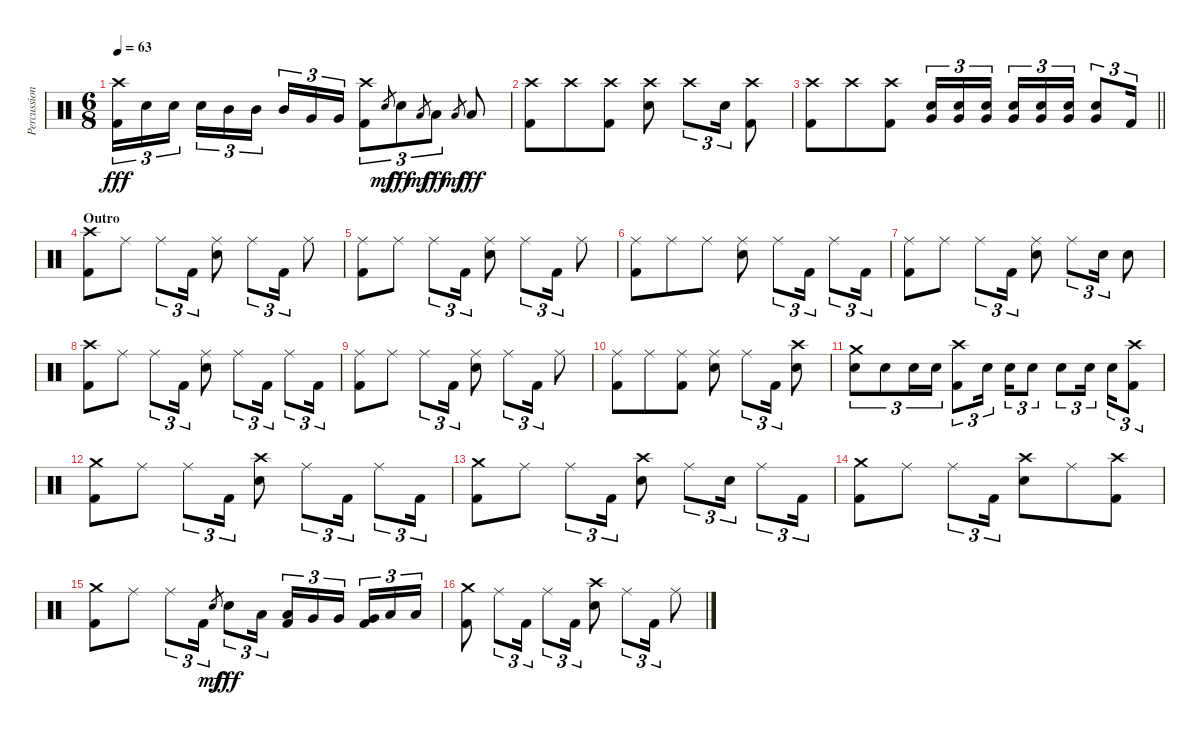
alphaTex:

\track ("Percussion" "Percussion") {instrument percussion}
\staff {score}
\articulation defaults
\ts (6 8)
\tempo 63
\clef neutral
\ks c
("Crash high (hit)" "Kick (hit) 2").16{tu (3 2) dy fff} "Electric Snare (hit)".16{tu (3 2)} "Electric Snare (hit)".16{tu (3 2) beam splitsecondary} "Electric Snare (hit)".16{tu (3 2)} "Mid Tom (hit)".16{tu (3 2)} "Mid Tom (hit)".16{tu (3 2) beam splitsecondary} "Mid Tom (hit)".16{tu (3 2)} "Very Low Tom (hit)".16{tu (3 2)} "Very Low Tom (hit)".16{tu (3 2)} ("Crash high (hit)" "Kick (hit) 2").8{tu (3 2)} "Electric Snare (hit)".8{gr dy mf} "Electric Snare (hit)".8{tu (3 2) dy fff} "Low Tom (hit)".8{gr dy mf} "Low Tom (hit)".8{tu (3 2) dy fff} "Low Floor Tom (hit)".8{gr dy mf} "Low Floor Tom (hit)".8{dy fff} |
("Crash high (hit)" "Kick (hit) 2").8 "Crash high (hit)".8 ("Crash high (hit)" "Kick (hit) 2").8 ("Crash high (hit)" "Electric Snare (hit)").8 "Crash high (hit)".8{tu (3 2)} "Electric Snare (hit)".16{tu (3 2)} ("Crash high (hit)" "Kick (hit) 2").8 |
\barLineRight lightlight
("Crash high (hit)" "Kick (hit) 2").8 "Crash high (hit)".8 ("Crash high (hit)" "Kick (hit) 2").8 ("Electric Snare (hit)" "Very Low Tom (hit)").16{tu (3 2)} ("Electric Snare (hit)" "Very Low Tom (hit)").16{tu (3 2)} ("Electric Snare (hit)" "Very Low Tom (hit)").16{tu (3 2) beam splitsecondary} ("Electric Snare (hit)" "Very Low Tom (hit)").16{tu (3 2)} ("Electric Snare (hit)" "Very Low Tom (hit)").16{tu (3 2)} ("Electric Snare (hit)" "Very Low Tom (hit)").16{tu (3 2)} ("Electric Snare (hit)" "Very Low Tom (hit)").8{tu (3 2)} "Kick (hit) 2".16{tu (3 2)} |
\section ("" "Outro")
("Crash high (hit)" "Kick (hit) 2").8 "Ride (middle)".8 "Ride (middle)".8{tu (3 2)} "Kick (hit) 2".16{tu (3 2)} ("Ride (middle)" "Electric Snare (hit)").8 "Ride (middle)".8{tu (3 2)} "Kick (hit) 2".16{tu (3 2)} "Ride (middle)".8 |
("Ride (middle)" "Kick (hit) 2").8 "Ride (middle)".8 "Ride (middle)".8{tu (3 2)} "Kick (hit) 2".16{tu (3 2)} ("Ride (middle)" "Electric Snare (hit)").8 "Ride (middle)".8{tu (3 2)} "Kick (hit) 2".16{tu (3 2)} "Ride (middle)".8 |
("Ride (middle)" "Kick (hit) 2").8 "Ride (middle)".8 "Ride (middle)".8 ("Ride (middle)" "Electric Snare (hit)").8 "Ride (middle)".8{tu (3 2)} "Kick (hit) 2".16{tu (3 2)} "Ride (middle)".8{tu (3 2)} "Kick (hit) 2".16{tu (3 2)} |
("Ride (middle)" "Kick (hit) 2").8 "Ride (middle)".8 "Ride (middle)".8{tu (3 2)} "Kick (hit) 2".16{tu (3 2)} ("Ride (middle)" "Electric Snare (hit)").8 "Ride (middle)".8{tu (3 2)} "Electric Snare (hit)".16{tu (3 2)} "Electric Snare (hit)".8 |
("Crash high (hit)" "Kick (hit) 2").8 "Ride (middle)".8 "Ride (middle)".8{tu (3 2)} "Kick (hit) 2".16{tu (3 2)} ("Ride (middle)" "Electric Snare (hit)").8 "Ride (middle)".8{tu (3 2)} "Kick (hit) 2".16{tu (3 2)} "Ride (middle)".8{tu (3 2)} "Kick (hit) 2".16{tu (3 2)} |
("Ride (middle)" "Kick (hit) 2").8 "Ride (middle)".8 "Ride (middle)".8{tu (3 2)} "Kick (hit) 2".16{tu (3 2)} ("Ride (middle)" "Electric Snare (hit)").8 "Ride (middle)".8{tu (3 2)} "Kick (hit) 2".16{tu (3 2)} "Ride (middle)".8 |
("Ride (middle)" "Kick (hit) 2").8 "Ride (middle)".8 ("Ride (middle)" "Kick (hit) 2").8 ("Ride (middle)" "Electric Snare (hit)").8 "Ride (middle)".8{tu (3 2)} "Kick (hit) 2".16{tu (3 2)} ("Crash high (hit)" "Electric Snare (hit)").8 |
("Crash medium (hit)" "Electric Snare (hit)").8{tu (3 2)} "Electric Snare (hit)".8{tu (3 2)} "Electric Snare (hit)".16{tu (3 2)} "Electric Snare (hit)".16{tu (3 2)} ("Crash high (hit)" "Kick (hit) 2").8{tu (3 2)} "Electric Snare (hit)".16{tu (3 2)} "Electric Snare (hit)".16{tu (3 2)} "Electric Snare (hit)".8{tu (3 2)} "Electric Snare (hit)".8{tu (3 2)} "Electric Snare (hit)".16{tu (3 2) beam splitsecondary} "Electric Snare (hit)".16{tu (3 2)} ("Crash high (hit)" "Kick (hit) 2").8{tu (3 2)} |
("Crash medium (hit)" "Kick (hit) 2").8 "Ride (middle)".8 "Ride (middle)".8{tu (3 2)} "Kick (hit) 2".16{tu (3 2)} ("Crash high (hit)" "Electric Snare (hit)").8 "Ride (middle)".8{tu (3 2)} "Kick (hit) 2".16{tu (3 2)} "Ride (middle)".8{tu (3 2)} "Kick (hit) 2".16{tu (3 2)} |
("Crash medium (hit)" "Kick (hit) 2").8 "Ride (middle)".8 "Ride (middle)".8{tu (3 2)} "Kick (hit) 2".16{tu (3 2)} ("Crash high (hit)" "Electric Snare (hit)").8 "Ride (middle)".8{tu (3 2)} "Electric Snare (hit)".16{tu (3 2)} "Ride (middle)".8{tu (3 2)} "Kick (hit) 2".16{tu (3 2)} |
("Crash medium (hit)" "Kick (hit) 2").8 "Ride (middle)".8 "Ride (middle)".8{tu (3 2)} "Kick (hit) 2".16{tu (3 2)} ("Crash high (hit)" "Electric Snare (hit)").8 "Ride (middle)".8 ("Crash high (hit)" "Kick (hit) 2").8 |
("Crash medium (hit)" "Kick (hit) 2").8 "Ride (middle)".8 "Ride (middle)".8{tu (3 2)} "Kick (hit) 2".16{tu (3 2)} "Electric Snare (hit)".8{gr dy mf} "Electric Snare (hit)".8{tu (3 2) dy fff} "Low Tom (hit)".16{tu (3 2) beam splitsecondary} ("Low Tom (hit)" "Kick (hit) 2").16{tu (3 2)} "Very Low Tom (hit)".16{tu (3 2)} "Very Low Tom (hit)".16{tu (3 2) beam splitsecondary} ("Very Low Tom (hit)" "Kick (hit) 2").16{tu (3 2)} "Low Floor Tom (hit)".16{tu (3 2)} "Low Floor Tom (hit)".16{tu (3 2)} |
("Crash medium (hit)" "Kick (hit) 2").8 "Ride (middle)".8{tu (3 2)} "Kick (hit) 2".16{tu (3 2)} "Ride (middle)".8{tu (3 2)} "Kick (hit) 2".16{tu (3 2)} ("Crash high (hit)" "Electric Snare (hit)").8 "Ride (middle)".8{tu (3 2)} "Kick (hit) 2".16{tu (3 2)} "Ride (middle)".8
